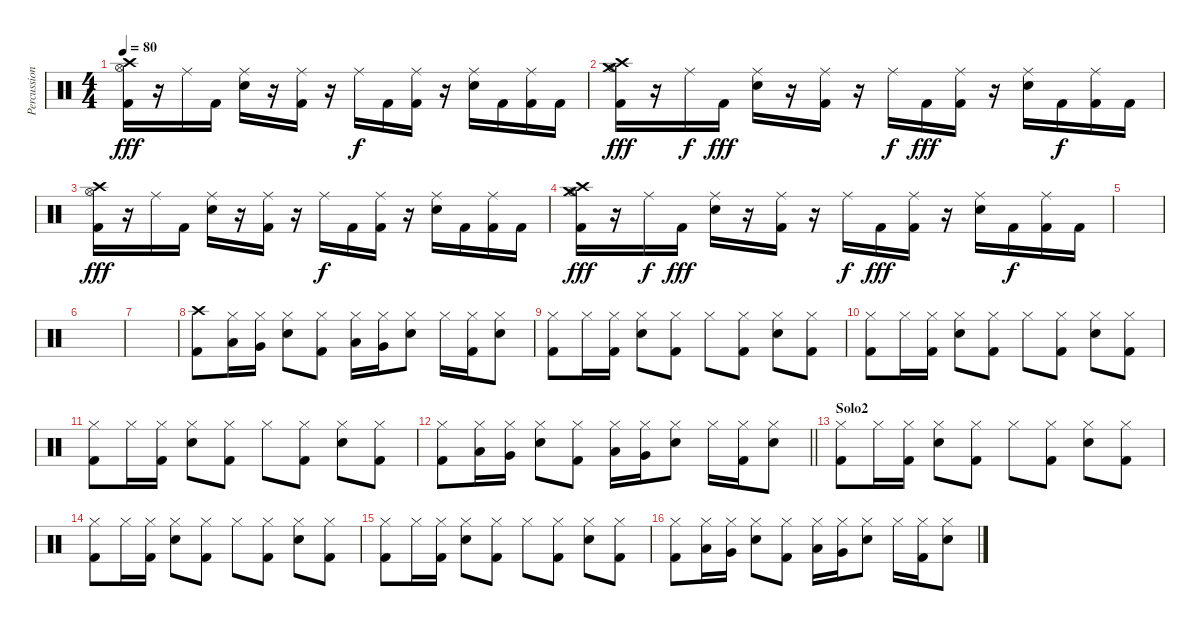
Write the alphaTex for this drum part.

\track ("Percussion" "Percussion") {instrument percussion}
\staff {score}
\articulation defaults
\ts (4 4)
\tempo 80
\clef neutral
\ks c
("Hi-Hat (open)" "Kick (hit) 2" "Crash high (hit)").16{dy fff} r.16 "Ride (middle)".16 "Kick (hit) 2".16 ("Electric Snare (hit)" "Ride (middle)").16 r.16 ("Ride (middle)" "Kick (hit) 2").16 r.16 "Ride (middle)".16{dy f} "Kick (hit) 2".16 ("Ride (middle)" "Kick (hit) 2").16 r.16 ("Ride (middle)" "Electric Snare (hit)").16 "Kick (hit) 2".16 ("Kick (hit) 2" "Ride (middle)").16 "Kick (hit) 2".16 |
("Kick (hit) 2" "Hi-Hat (open)" "Crash high (hit)" "Crash medium (hit)").16{dy fff} r.16 "Ride (middle)".16{dy f} "Kick (hit) 2".16{dy fff} ("Electric Snare (hit)" "Ride (middle)").16 r.16 ("Ride (middle)" "Kick (hit) 2").16 r.16 "Ride (middle)".16{dy f} "Kick (hit) 2".16{dy fff} ("Ride (middle)" "Kick (hit) 2").16 r.16 ("Ride (middle)" "Electric Snare (hit)").16 "Kick (hit) 2".16{dy f} ("Kick (hit) 2" "Ride (middle)").16 "Kick (hit) 2".16 |
("Hi-Hat (open)" "Kick (hit) 2" "Crash high (hit)").16{dy fff} r.16 "Ride (middle)".16 "Kick (hit) 2".16 ("Electric Snare (hit)" "Ride (middle)").16 r.16 ("Ride (middle)" "Kick (hit) 2").16 r.16 "Ride (middle)".16{dy f} "Kick (hit) 2".16 ("Ride (middle)" "Kick (hit) 2").16 r.16 ("Ride (middle)" "Electric Snare (hit)").16 "Kick (hit) 2".16 ("Kick (hit) 2" "Ride (middle)").16 "Kick (hit) 2".16 |
("Kick (hit) 2" "Hi-Hat (open)" "Crash high (hit)" "Crash medium (hit)").16{dy fff} r.16 "Ride (middle)".16{dy f} "Kick (hit) 2".16{dy fff} ("Electric Snare (hit)" "Ride (middle)").16 r.16 ("Ride (middle)" "Kick (hit) 2").16 r.16 "Ride (middle)".16{dy f} "Kick (hit) 2".16{dy fff} ("Ride (middle)" "Kick (hit) 2").16 r.16 ("Ride (middle)" "Electric Snare (hit)").16 "Kick (hit) 2".16{dy f} ("Kick (hit) 2" "Ride (middle)").16 "Kick (hit) 2".16 |
|
|
|
("Crash high (hit)" "Kick (hit) 2").8 ("Hi-Hat (closed)" "Low Tom (hit)").16 ("Hi-Hat (closed)" "Very Low Tom (hit)").16 ("Hi-Hat (closed)" "Snare (hit) 2").8 ("Hi-Hat (closed)" "Kick (hit) 2").8 ("Hi-Hat (closed)" "Low Tom (hit)").16 ("Hi-Hat (closed)" "Very Low Tom (hit)").16 ("Hi-Hat (closed)" "Snare (hit) 2").8 "Hi-Hat (closed)".16 ("Hi-Hat (closed)" "Kick (hit) 2").16 ("Hi-Hat (closed)" "Snare (hit) 2").8 |
("Hi-Hat (closed)" "Kick (hit) 2").8 "Hi-Hat (closed)".16 ("Hi-Hat (closed)" "Kick (hit) 2").16 ("Hi-Hat (closed)" "Snare (hit) 2").8 ("Hi-Hat (closed)" "Kick (hit) 2").8 "Hi-Hat (closed)".8 ("Hi-Hat (closed)" "Kick (hit) 2").8 ("Hi-Hat (closed)" "Snare (hit) 2").8 ("Hi-Hat (closed)" "Kick (hit) 2").8 |
("Hi-Hat (closed)" "Kick (hit) 2").8 "Hi-Hat (closed)".16 ("Hi-Hat (closed)" "Kick (hit) 2").16 ("Hi-Hat (closed)" "Snare (hit) 2").8 ("Hi-Hat (closed)" "Kick (hit) 2").8 "Hi-Hat (closed)".8 ("Hi-Hat (closed)" "Kick (hit) 2").8 ("Hi-Hat (closed)" "Snare (hit) 2").8 ("Hi-Hat (closed)" "Kick (hit) 2").8 |
("Hi-Hat (closed)" "Kick (hit) 2").8 "Hi-Hat (closed)".16 ("Hi-Hat (closed)" "Kick (hit) 2").16 ("Hi-Hat (closed)" "Snare (hit) 2").8 ("Hi-Hat (closed)" "Kick (hit) 2").8 "Hi-Hat (closed)".8 ("Hi-Hat (closed)" "Kick (hit) 2").8 ("Hi-Hat (closed)" "Snare (hit) 2").8 ("Hi-Hat (closed)" "Kick (hit) 2").8 |
\barLineRight lightlight
("Hi-Hat (closed)" "Kick (hit) 2").8 ("Hi-Hat (closed)" "Low Tom (hit)").16 ("Hi-Hat (closed)" "Very Low Tom (hit)").16 ("Hi-Hat (closed)" "Snare (hit) 2").8 ("Hi-Hat (closed)" "Kick (hit) 2").8 ("Hi-Hat (closed)" "Low Tom (hit)").16 ("Hi-Hat (closed)" "Very Low Tom (hit)").16 ("Hi-Hat (closed)" "Snare (hit) 2").8 "Hi-Hat (closed)".16 ("Hi-Hat (closed)" "Kick (hit) 2").16 ("Hi-Hat (closed)" "Snare (hit) 2").8 |
\section ("" "Solo2")
("Hi-Hat (closed)" "Kick (hit) 2").8 "Hi-Hat (closed)".16 ("Hi-Hat (closed)" "Kick (hit) 2").16 ("Hi-Hat (closed)" "Snare (hit) 2").8 ("Hi-Hat (closed)" "Kick (hit) 2").8 "Hi-Hat (closed)".8 ("Hi-Hat (closed)" "Kick (hit) 2").8 ("Hi-Hat (closed)" "Snare (hit) 2").8 ("Hi-Hat (closed)" "Kick (hit) 2").8 |
("Hi-Hat (closed)" "Kick (hit) 2").8 "Hi-Hat (closed)".16 ("Hi-Hat (closed)" "Kick (hit) 2").16 ("Hi-Hat (closed)" "Snare (hit) 2").8 ("Hi-Hat (closed)" "Kick (hit) 2").8 "Hi-Hat (closed)".8 ("Hi-Hat (closed)" "Kick (hit) 2").8 ("Hi-Hat (closed)" "Snare (hit) 2").8 ("Hi-Hat (closed)" "Kick (hit) 2").8 |
("Hi-Hat (closed)" "Kick (hit) 2").8 "Hi-Hat (closed)".16 ("Hi-Hat (closed)" "Kick (hit) 2").16 ("Hi-Hat (closed)" "Snare (hit) 2").8 ("Hi-Hat (closed)" "Kick (hit) 2").8 "Hi-Hat (closed)".8 ("Hi-Hat (closed)" "Kick (hit) 2").8 ("Hi-Hat (closed)" "Snare (hit) 2").8 ("Hi-Hat (closed)" "Kick (hit) 2").8 |
("Hi-Hat (closed)" "Kick (hit) 2").8 ("Hi-Hat (closed)" "Low Tom (hit)").16 ("Hi-Hat (closed)" "Very Low Tom (hit)").16 ("Hi-Hat (closed)" "Snare (hit) 2").8 ("Hi-Hat (closed)" "Kick (hit) 2").8 ("Hi-Hat (closed)" "Low Tom (hit)").16 ("Hi-Hat (closed)" "Very Low Tom (hit)").16 ("Hi-Hat (closed)" "Snare (hit) 2").8 "Hi-Hat (closed)".16 ("Hi-Hat (closed)" "Kick (hit) 2").16 ("Hi-Hat (closed)" "Snare (hit) 2").8
